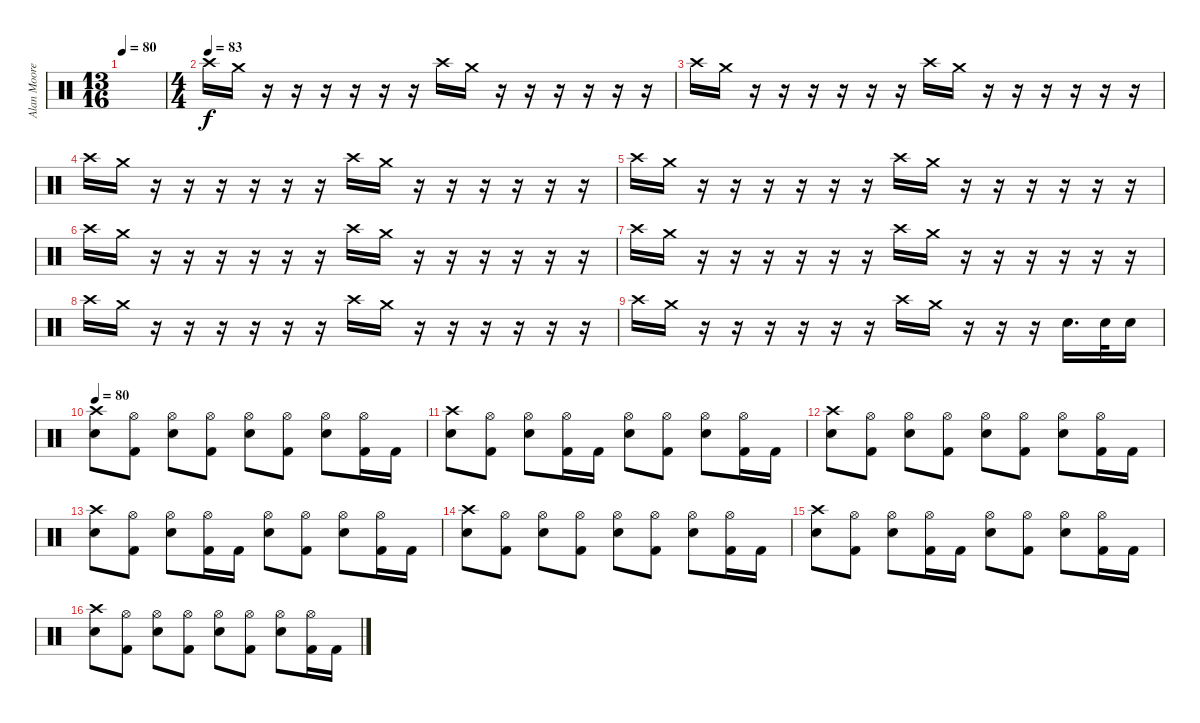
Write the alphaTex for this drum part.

\track ("Alan Moore" "Alan Moore") {instrument percussion}
\staff {score}
\articulation defaults
\ts (13 16)
\tempo 80
\clef neutral
\ks c
|
\ts (4 4)
\tempo (83)
"Crash high (hit)".16 "Crash medium (hit)".16 r.16 r.16 r.16 r.16 r.16 r.16 "Crash high (hit)".16 "Crash medium (hit)".16 r.16 r.16 r.16 r.16 r.16 r.16 |
"Crash high (hit)".16 "Crash medium (hit)".16 r.16 r.16 r.16 r.16 r.16 r.16 "Crash high (hit)".16 "Crash medium (hit)".16 r.16 r.16 r.16 r.16 r.16 r.16 |
"Crash high (hit)".16 "Crash medium (hit)".16 r.16 r.16 r.16 r.16 r.16 r.16 "Crash high (hit)".16 "Crash medium (hit)".16 r.16 r.16 r.16 r.16 r.16 r.16 |
"Crash high (hit)".16 "Crash medium (hit)".16 r.16 r.16 r.16 r.16 r.16 r.16 "Crash high (hit)".16 "Crash medium (hit)".16 r.16 r.16 r.16 r.16 r.16 r.16 |
"Crash high (hit)".16 "Crash medium (hit)".16 r.16 r.16 r.16 r.16 r.16 r.16 "Crash high (hit)".16 "Crash medium (hit)".16 r.16 r.16 r.16 r.16 r.16 r.16 |
"Crash high (hit)".16 "Crash medium (hit)".16 r.16 r.16 r.16 r.16 r.16 r.16 "Crash high (hit)".16 "Crash medium (hit)".16 r.16 r.16 r.16 r.16 r.16 r.16 |
"Crash high (hit)".16 "Crash medium (hit)".16 r.16 r.16 r.16 r.16 r.16 r.16 "Crash high (hit)".16 "Crash medium (hit)".16 r.16 r.16 r.16 r.16 r.16 r.16 |
"Crash high (hit)".16 "Crash medium (hit)".16 r.16 r.16 r.16 r.16 r.16 r.16 "Crash high (hit)".16 "Crash medium (hit)".16 r.16 r.16 r.16 "Snare (hit) 2".16{d} "Snare (hit) 2".32 "Snare (hit) 2".16 |
\tempo 80
("Snare (hit) 2" "Crash high (hit)").8 ("Hi-Hat (open)" "Kick (hit) 2").8 ("Snare (hit) 2" "Hi-Hat (open)").8 ("Hi-Hat (open)" "Kick (hit) 2").8 ("Snare (hit) 2" "Hi-Hat (open)").8 ("Hi-Hat (open)" "Kick (hit) 2").8 ("Snare (hit) 2" "Hi-Hat (open)").8 ("Hi-Hat (open)" "Kick (hit) 2").16 "Kick (hit) 2".16 |
("Snare (hit) 2" "Crash high (hit)").8 ("Hi-Hat (open)" "Kick (hit) 2").8 ("Snare (hit) 2" "Hi-Hat (open)").8 ("Hi-Hat (open)" "Kick (hit) 2").16 "Kick (hit) 2".16 ("Snare (hit) 2" "Hi-Hat (open)").8 ("Hi-Hat (open)" "Kick (hit) 2").8 ("Snare (hit) 2" "Hi-Hat (open)").8 ("Hi-Hat (open)" "Kick (hit) 2").16 "Kick (hit) 2".16 |
("Snare (hit) 2" "Crash high (hit)").8 ("Hi-Hat (open)" "Kick (hit) 2").8 ("Snare (hit) 2" "Hi-Hat (open)").8 ("Hi-Hat (open)" "Kick (hit) 2").8 ("Snare (hit) 2" "Hi-Hat (open)").8 ("Hi-Hat (open)" "Kick (hit) 2").8 ("Snare (hit) 2" "Hi-Hat (open)").8 ("Hi-Hat (open)" "Kick (hit) 2").16 "Kick (hit) 2".16 |
("Snare (hit) 2" "Crash high (hit)").8 ("Hi-Hat (open)" "Kick (hit) 2").8 ("Snare (hit) 2" "Hi-Hat (open)").8 ("Hi-Hat (open)" "Kick (hit) 2").16 "Kick (hit) 2".16 ("Snare (hit) 2" "Hi-Hat (open)").8 ("Hi-Hat (open)" "Kick (hit) 2").8 ("Snare (hit) 2" "Hi-Hat (open)").8 ("Hi-Hat (open)" "Kick (hit) 2").16 "Kick (hit) 2".16 |
("Snare (hit) 2" "Crash high (hit)").8 ("Hi-Hat (open)" "Kick (hit) 2").8 ("Snare (hit) 2" "Hi-Hat (open)").8 ("Hi-Hat (open)" "Kick (hit) 2").8 ("Snare (hit) 2" "Hi-Hat (open)").8 ("Hi-Hat (open)" "Kick (hit) 2").8 ("Snare (hit) 2" "Hi-Hat (open)").8 ("Hi-Hat (open)" "Kick (hit) 2").16 "Kick (hit) 2".16 |
("Snare (hit) 2" "Crash high (hit)").8 ("Hi-Hat (open)" "Kick (hit) 2").8 ("Snare (hit) 2" "Hi-Hat (open)").8 ("Hi-Hat (open)" "Kick (hit) 2").16 "Kick (hit) 2".16 ("Snare (hit) 2" "Hi-Hat (open)").8 ("Hi-Hat (open)" "Kick (hit) 2").8 ("Snare (hit) 2" "Hi-Hat (open)").8 ("Hi-Hat (open)" "Kick (hit) 2").16 "Kick (hit) 2".16 |
("Snare (hit) 2" "Crash high (hit)").8 ("Hi-Hat (open)" "Kick (hit) 2").8 ("Snare (hit) 2" "Hi-Hat (open)").8 ("Hi-Hat (open)" "Kick (hit) 2").8 ("Snare (hit) 2" "Hi-Hat (open)").8 ("Hi-Hat (open)" "Kick (hit) 2").8 ("Snare (hit) 2" "Hi-Hat (open)").8 ("Hi-Hat (open)" "Kick (hit) 2").16 "Kick (hit) 2".16
